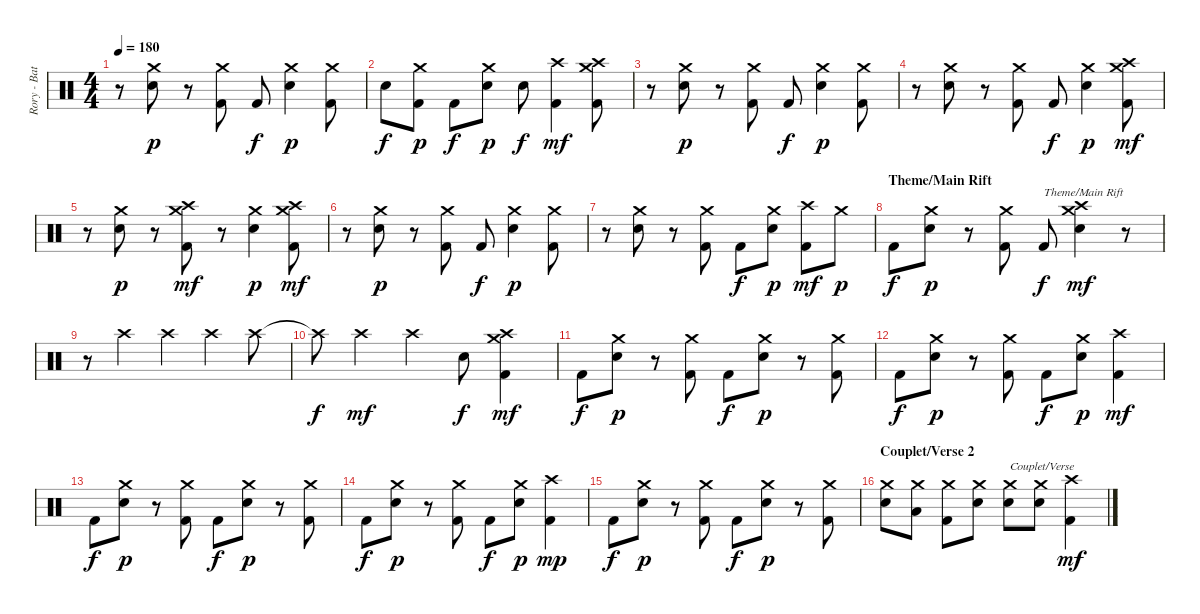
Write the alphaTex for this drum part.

\track ("Rory - Batterie/Drums" "Rory - Bat") {instrument percussion}
\staff {score}
\articulation defaults
\ts (4 4)
\tempo 180
\clef neutral
\ks c
r.8{dy mf} ("Crash medium (hit)" "Electric Snare (hit)").8{dy p} r.8 ("Crash medium (hit)" "Kick (hit) 2").8 "Kick (hit) 2".8{dy f} ("Crash medium (hit)" "Electric Snare (hit)").4{dy p} ("Crash medium (hit)" "Kick (hit) 2").8 |
"Electric Snare (hit)".8{dy f} ("Crash medium (hit)" "Kick (hit) 2").8{dy p} "Kick (hit) 2".8{dy f} ("Crash medium (hit)" "Electric Snare (hit)").8{dy p} "Electric Snare (hit)".8{dy f} ("Crash high (hit)" "Kick (hit) 2").4{dy mf} ("Crash medium (hit)" "Crash high (hit)" "Kick (hit) 2").8 |
r.8 ("Crash medium (hit)" "Electric Snare (hit)").8{dy p} r.8 ("Crash medium (hit)" "Kick (hit) 2").8 "Kick (hit) 2".8{dy f} ("Crash medium (hit)" "Electric Snare (hit)").4{dy p} ("Crash medium (hit)" "Kick (hit) 2").8 |
r.8 ("Crash medium (hit)" "Electric Snare (hit)").8 r.8 ("Crash medium (hit)" "Kick (hit) 2").8 "Kick (hit) 2".8{dy f} ("Crash medium (hit)" "Electric Snare (hit)").4{dy p} ("Crash medium (hit)" "Crash high (hit)" "Kick (hit) 2").8{dy mf} |
r.8 ("Crash medium (hit)" "Electric Snare (hit)").8{dy p} r.8 ("Crash medium (hit)" "Crash high (hit)" "Kick (hit) 2").8{dy mf} r.8 ("Crash medium (hit)" "Electric Snare (hit)").4{dy p} ("Crash medium (hit)" "Crash high (hit)" "Kick (hit) 2").8{dy mf} |
r.8 ("Crash medium (hit)" "Electric Snare (hit)").8{dy p} r.8 ("Crash medium (hit)" "Kick (hit) 2").8 "Kick (hit) 2".8{dy f} ("Crash medium (hit)" "Electric Snare (hit)").4{dy p} ("Crash medium (hit)" "Kick (hit) 2").8 |
r.8 ("Crash medium (hit)" "Electric Snare (hit)").8 r.8 ("Crash medium (hit)" "Kick (hit) 2").8 "Kick (hit) 2".8{dy f} ("Crash medium (hit)" "Electric Snare (hit)").8{dy p} ("Crash high (hit)" "Kick (hit) 2").8{dy mf} "Crash medium (hit)".8{dy p} |
\section ("" "Theme/Main Rift")
"Kick (hit) 2".8{dy f} ("Crash medium (hit)" "Electric Snare (hit)").8{dy p} r.8 ("Crash medium (hit)" "Kick (hit) 2").8 "Kick (hit) 2".8{txt "Theme/Main Rift" dy f} ("Crash medium (hit)" "Crash high (hit)" "Electric Snare (hit)").4{dy mf} r.8 |
r.8 "Crash high (hit)".4 "Crash high (hit)".4 "Crash high (hit)".4 "Crash high (hit)".8 |
"Crash high (hit)"{t}.8{dy f} "Crash high (hit)".4{dy mf} "Crash high (hit)".4 "Electric Snare (hit)".8{dy f} ("Crash medium (hit)" "Crash high (hit)" "Kick (hit) 2").4{dy mf} |
"Kick (hit) 2".8{dy f} ("Crash medium (hit)" "Electric Snare (hit)").8{dy p} r.8 ("Crash medium (hit)" "Kick (hit) 2").8 "Kick (hit) 2".8{dy f} ("Crash medium (hit)" "Electric Snare (hit)").8{dy p} r.8 ("Crash medium (hit)" "Kick (hit) 2").8 |
"Kick (hit) 2".8{dy f} ("Crash medium (hit)" "Electric Snare (hit)").8{dy p} r.8 ("Crash medium (hit)" "Kick (hit) 2").8 "Kick (hit) 2".8{dy f} ("Crash medium (hit)" "Electric Snare (hit)").8{dy p} ("Crash high (hit)" "Kick (hit) 2").4{dy mf} |
"Kick (hit) 2".8{dy f} ("Crash medium (hit)" "Electric Snare (hit)").8{dy p} r.8 ("Crash medium (hit)" "Kick (hit) 2").8 "Kick (hit) 2".8{dy f} ("Crash medium (hit)" "Electric Snare (hit)").8{dy p} r.8 ("Crash medium (hit)" "Kick (hit) 2").8 |
"Kick (hit) 2".8{dy f} ("Crash medium (hit)" "Electric Snare (hit)").8{dy p} r.8 ("Crash medium (hit)" "Kick (hit) 2").8 "Kick (hit) 2".8{dy f} ("Crash medium (hit)" "Electric Snare (hit)").8{dy p} ("Crash high (hit)" "Kick (hit) 2").4{dy mp} |
"Kick (hit) 2".8{dy f} ("Crash medium (hit)" "Electric Snare (hit)").8{dy p} r.8 ("Crash medium (hit)" "Kick (hit) 2").8 "Kick (hit) 2".8{dy f} ("Crash medium (hit)" "Electric Snare (hit)").8{dy p} r.8 ("Crash medium (hit)" "Kick (hit) 2").8 |
\section ("" "Couplet/Verse 2")
("Crash medium (hit)" "Electric Snare (hit)").8 ("Crash medium (hit)" "Low Tom (hit)").8 ("Crash medium (hit)" "Kick (hit) 2").8 ("Crash medium (hit)" "Electric Snare (hit)").8 ("Crash medium (hit)" "Electric Snare (hit)").8{txt "Couplet/Verse"} ("Crash medium (hit)" "Electric Snare (hit)").8 ("Crash high (hit)" "Kick (hit) 2").4{dy mf}
